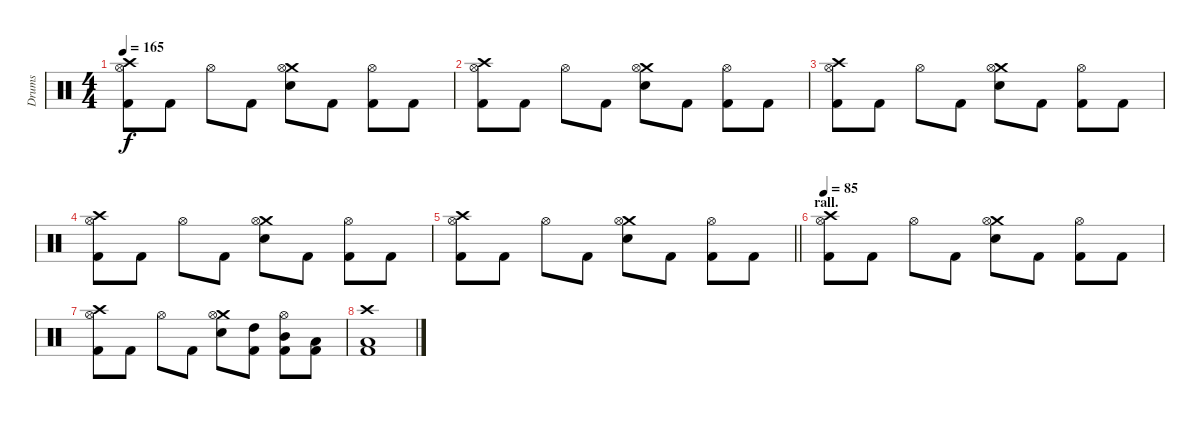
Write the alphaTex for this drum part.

\track ("Drums" "Drums") {instrument percussion}
\staff {score}
\articulation defaults
\ts (4 4)
\tempo 165
\clef neutral
\ks c
("Crash high (hit)" "Hi-Hat (open)" "Kick (hit) 2").8{dy f} "Kick (hit) 2".8 "Hi-Hat (open)".8 "Kick (hit) 2".8 ("Crash medium (hit)" "Hi-Hat (open)" "Snare (hit) 2").8 "Kick (hit) 2".8 ("Hi-Hat (open)" "Kick (hit) 2").8 "Kick (hit) 2".8 |
("Crash high (hit)" "Hi-Hat (open)" "Kick (hit) 2").8 "Kick (hit) 2".8 "Hi-Hat (open)".8 "Kick (hit) 2".8 ("Crash medium (hit)" "Hi-Hat (open)" "Snare (hit) 2").8 "Kick (hit) 2".8 ("Hi-Hat (open)" "Kick (hit) 2").8 "Kick (hit) 2".8 |
("Crash high (hit)" "Hi-Hat (open)" "Kick (hit) 2").8 "Kick (hit) 2".8 "Hi-Hat (open)".8 "Kick (hit) 2".8 ("Crash medium (hit)" "Hi-Hat (open)" "Snare (hit) 2").8 "Kick (hit) 2".8 ("Hi-Hat (open)" "Kick (hit) 2").8 "Kick (hit) 2".8 |
("Crash high (hit)" "Hi-Hat (open)" "Kick (hit) 2").8 "Kick (hit) 2".8 "Hi-Hat (open)".8 "Kick (hit) 2".8 ("Crash medium (hit)" "Hi-Hat (open)" "Snare (hit) 2").8 "Kick (hit) 2".8 ("Hi-Hat (open)" "Kick (hit) 2").8 "Kick (hit) 2".8 |
\barLineRight lightlight
("Crash high (hit)" "Hi-Hat (open)" "Kick (hit) 2").8 "Kick (hit) 2".8 "Hi-Hat (open)".8 "Kick (hit) 2".8 ("Crash medium (hit)" "Hi-Hat (open)" "Snare (hit) 2").8 "Kick (hit) 2".8 ("Hi-Hat (open)" "Kick (hit) 2").8 "Kick (hit) 2".8 |
\section ("" "rall.")
\tempo 85
("Crash high (hit)" "Hi-Hat (open)" "Kick (hit) 2").8 "Kick (hit) 2".8 "Hi-Hat (open)".8 "Kick (hit) 2".8 ("Crash medium (hit)" "Hi-Hat (open)" "Snare (hit) 2").8 "Kick (hit) 2".8 ("Hi-Hat (open)" "Kick (hit) 2").8 "Kick (hit) 2".8 |
("Crash high (hit)" "Hi-Hat (open)" "Kick (hit) 2").8 "Kick (hit) 2".8 "Hi-Hat (open)".8 "Kick (hit) 2".8 ("Crash medium (hit)" "Hi-Hat (open)" "Snare (hit) 2").8 ("High Tom (hit)" "Kick (hit) 2").8 ("Hi-Hat (open)" "Mid Tom (hit)" "Kick (hit) 2").8 ("Low Tom (hit)" "Kick (hit) 2").8 |
("Crash high (hit)" "Low Floor Tom (hit)" "Kick (hit) 2").1
